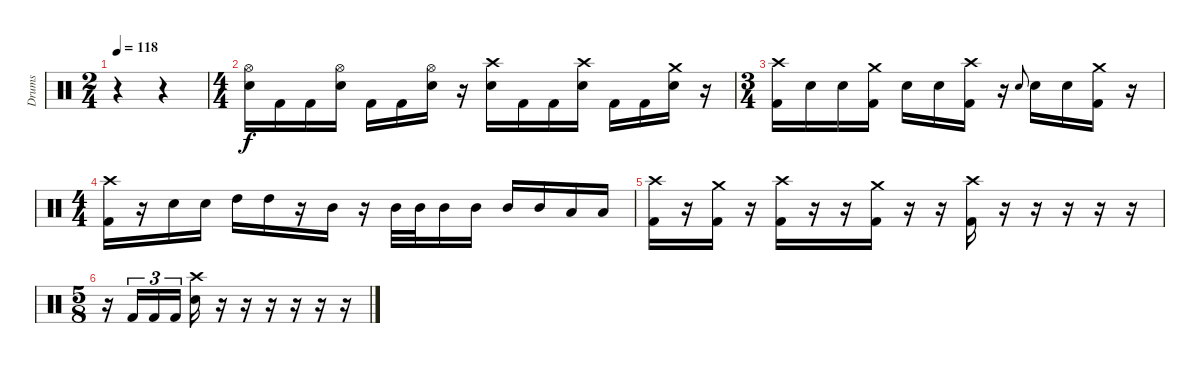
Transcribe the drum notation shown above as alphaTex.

\track ("Drums" "Drums") {instrument percussion}
\staff {score}
\articulation defaults
\ts (2 4)
\tempo 118
\clef neutral
\ks c
r.4{dy f} r.4 |
\ts (4 4)
("Snare (hit) 2" "Hi-Hat (open)").16 "Kick (hit) 2".16 "Kick (hit) 2".16 ("Snare (hit) 2" "Hi-Hat (open)").16 "Kick (hit) 2".16 "Kick (hit) 2".16 ("Snare (hit) 2" "Hi-Hat (open)").16 r.16 ("Snare (hit) 2" "Crash high (hit)").16 "Kick (hit) 2".16 "Kick (hit) 2".16 ("Snare (hit) 2" "Crash high (hit)").16 "Kick (hit) 2".16 "Kick (hit) 2".16 ("Snare (hit) 2" "Crash medium (hit)").16 r.16 |
\ts (3 4)
("Kick (hit) 2" "Crash high (hit)").16 "Snare (hit) 2".16 "Snare (hit) 2".16 ("Kick (hit) 2" "Crash medium (hit)").16 "Snare (hit) 2".16 "Snare (hit) 2".16 ("Kick (hit) 2" "Crash high (hit)").16 r.16 "Snare (hit) 2".8{gr onbeat} "Snare (hit) 2".16 "Snare (hit) 2".16 ("Kick (hit) 2" "Crash medium (hit)").16 r.16 |
\ts (4 4)
("Kick (hit) 2" "Crash high (hit)").16 r.16 "Snare (hit) 2".16 "Snare (hit) 2".16 "High Tom (hit)".16 "High Tom (hit)".16 r.16 "Mid Tom (hit)".16 r.16 "Mid Tom (hit)".32 "Mid Tom (hit)".32 "Mid Tom (hit)".16 "Mid Tom (hit)".16 "Mid Tom (hit)".16 "Mid Tom (hit)".16 "Low Tom (hit)".16 "Low Tom (hit)".16 |
("Kick (hit) 2" "Crash high (hit)").16 r.16 ("Crash medium (hit)" "Kick (hit) 2").16 r.16 ("Kick (hit) 2" "Crash high (hit)").16 r.16 r.16 ("Kick (hit) 2" "Crash medium (hit)").16 r.16 r.16 ("Kick (hit) 2" "Crash high (hit)").16 r.16 r.16 r.16 r.16 r.16 |
\ts (5 8)
r.16 "Kick (hit) 2".16{tu (3 2)} "Kick (hit) 2".16{tu (3 2)} "Kick (hit) 2".16{tu (3 2)} ("Snare (hit) 2" "Crash high (hit)").16 r.16 r.16 r.16 r.16 r.16 r.16
